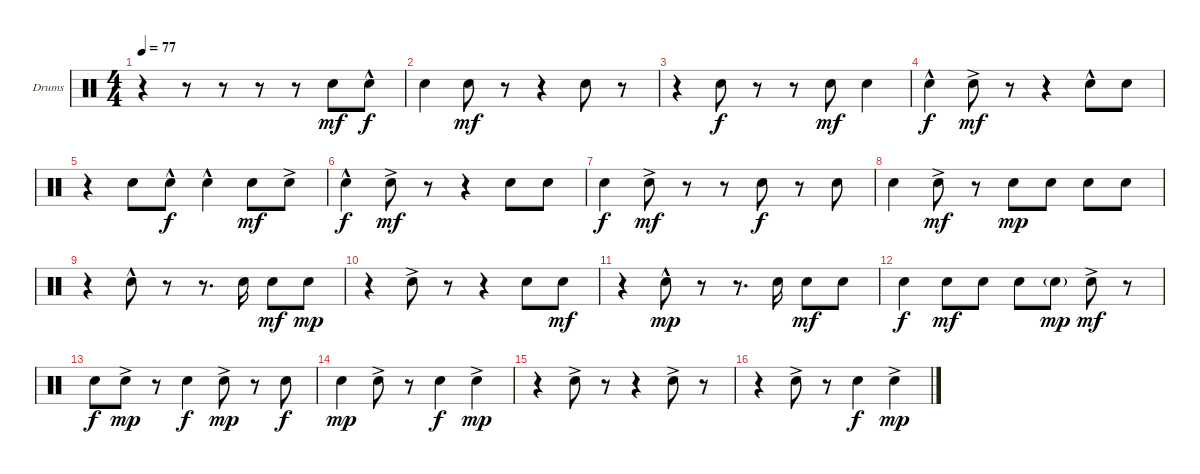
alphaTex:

\bracketExtendMode groupsimilarinstruments
\firstSystemTrackNameOrientation horizontal
\otherSystemsTrackNameOrientation horizontal
\track ("Drumkit Гурьянов" "Drums") {instrument percussion}
\staff {score}
\articulation defaults
\ts (4 4)
\tempo 77
\clef neutral
\scale
0.474178
\ks c
r.4{dy mf} r.8 r.8 r.8 r.8 "Snare (hit) 2".8 "Snare (hit) 2"{hac}.8{dy f} |
\scale
0.262911 "Snare (hit) 2".4 "Snare (hit) 2".8{dy mf} r.8 r.4 "Snare (hit) 2".8 r.8 |
\scale
0.262911 r.4 "Snare (hit) 2".8{dy f} r.8 r.8 "Snare (hit) 2".8{dy mf} "Snare (hit) 2".4 |
\scale
0.333333 "Snare (hit) 2"{hac}.4{dy f} "Snare (hit) 2"{ac}.8{dy mf} r.8 r.4 "Snare (hit) 2"{hac}.8 "Snare (hit) 2".8 |
\scale
0.333333 r.4 "Snare (hit) 2".8 "Snare (hit) 2"{hac}.8{dy f} "Snare (hit) 2"{hac}.4 "Snare (hit) 2".8{dy mf} "Snare (hit) 2"{ac}.8 |
\scale
0.333333 "Snare (hit) 2"{hac}.4{dy f} "Snare (hit) 2"{ac}.8{dy mf} r.8 r.4 "Snare (hit) 2".8 "Snare (hit) 2".8 |
\scale
0.333333 "Snare (hit) 2".4{dy f} "Snare (hit) 2"{ac}.8{dy mf} r.8 r.8 "Snare (hit) 2".8{dy f} r.8 "Snare (hit) 2".8 |
\scale
0.333333 "Snare (hit) 2".4 "Snare (hit) 2"{ac}.8{dy mf} r.8 "Snare (hit) 2".8{dy mp} "Snare (hit) 2".8 "Snare (hit) 2".8 "Snare (hit) 2".8 |
\scale
0.333333 r.4 "Snare (hit) 2"{hac}.8 r.8 r.8{d} "Snare (hit) 2".16 "Snare (hit) 2".8{dy mf} "Snare (hit) 2".8{dy mp} |
\scale
0.333333 r.4 "Snare (hit) 2"{ac}.8 r.8 r.4 "Snare (hit) 2".8 "Snare (hit) 2".8{dy mf} |
\scale
0.333333 r.4 "Snare (hit) 2"{hac}.8{dy mp} r.8 r.8{d} "Snare (hit) 2".16 "Snare (hit) 2".8{dy mf} "Snare (hit) 2".8 |
\scale
0.333333 "Snare (hit) 2".4{dy f} "Snare (hit) 2".8{dy mf} "Snare (hit) 2".8 "Snare (hit) 2".8 "Snare (hit) 2"{g}.8{dy mp} "Snare (hit) 2"{ac}.8{dy mf} r.8 |
\scale
0.333333 "Snare (hit) 2".8{dy f} "Snare (hit) 2"{ac}.8{dy mp} r.8 "Snare (hit) 2".4{dy f} "Snare (hit) 2"{ac}.8{dy mp} r.8 "Snare (hit) 2".8{dy f} |
\scale
0.333333 "Snare (hit) 2".4{dy mp} "Snare (hit) 2"{ac}.8 r.8 "Snare (hit) 2".4{dy f} "Snare (hit) 2"{ac}.4{dy mp} |
\scale
0.333333 r.4 "Snare (hit) 2"{ac}.8 r.8 r.4 "Snare (hit) 2"{ac}.8 r.8 |
\scale
0.333333 r.4 "Snare (hit) 2"{ac}.8 r.8 "Snare (hit) 2".4{dy f} "Snare (hit) 2"{ac}.4{dy mp}
